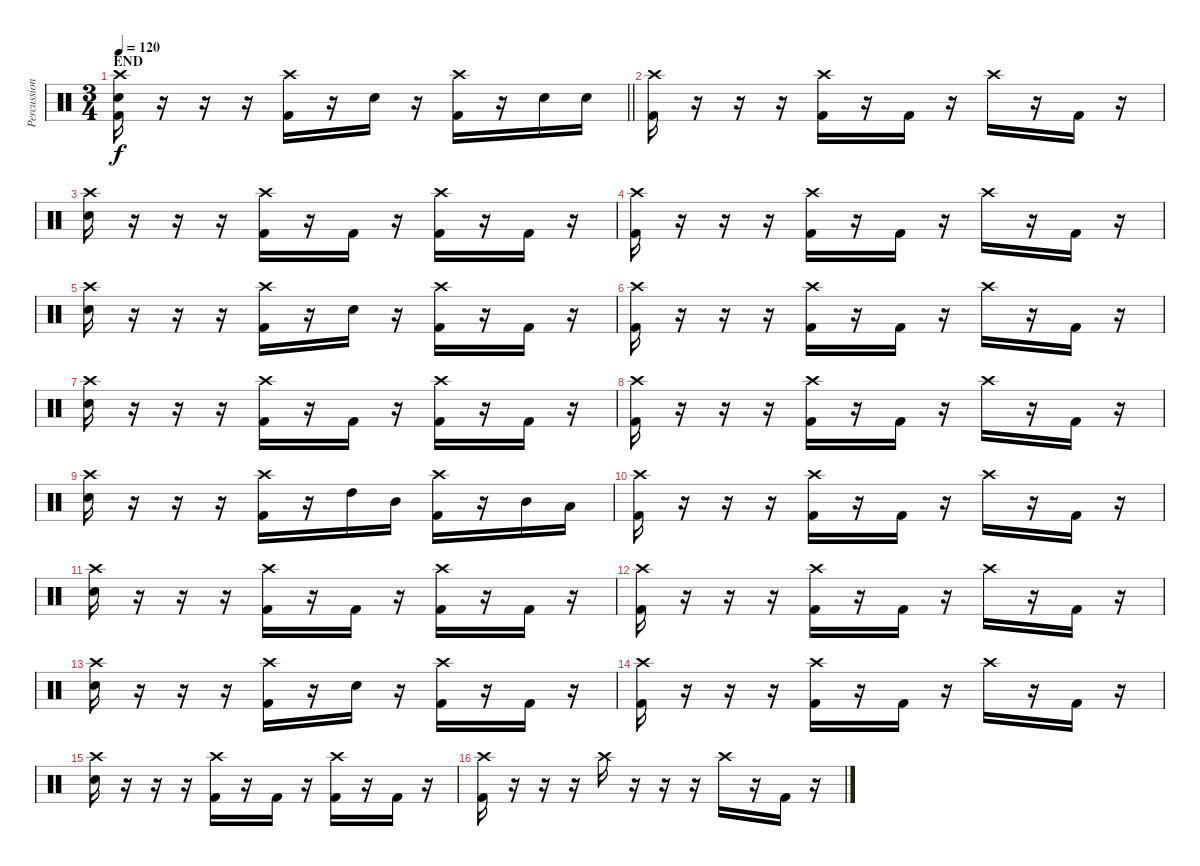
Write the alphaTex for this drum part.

\track ("Percussion" "Percussion") {instrument percussion}
\staff {score}
\articulation defaults
\ts (3 4)
\section ("" "END")
\tempo 120
\clef neutral
\barLineRight lightlight
\ks c
("Kick (hit) 2" "Electric Snare (hit)" "Crash high (hit)").16{dy f} r.16 r.16 r.16 ("Kick (hit) 2" "Crash high (hit)").16 r.16 "Electric Snare (hit)".16 r.16 ("Kick (hit) 2" "Crash high (hit)").16 r.16 "Electric Snare (hit)".16 "Electric Snare (hit)".16 |
("Kick (hit) 2" "Crash high (hit)").16 r.16 r.16 r.16 ("Kick (hit) 2" "Crash high (hit)").16 r.16 "Kick (hit) 2".16 r.16 "Crash high (hit)".16 r.16 "Kick (hit) 2".16 r.16 |
("Electric Snare (hit)" "Crash high (hit)").16 r.16 r.16 r.16 ("Kick (hit) 2" "Crash high (hit)").16 r.16 "Kick (hit) 2".16 r.16 ("Kick (hit) 2" "Crash high (hit)").16 r.16 "Kick (hit) 2".16 r.16 |
("Kick (hit) 2" "Crash high (hit)").16 r.16 r.16 r.16 ("Kick (hit) 2" "Crash high (hit)").16 r.16 "Kick (hit) 2".16 r.16 "Crash high (hit)".16 r.16 "Kick (hit) 2".16 r.16 |
("Electric Snare (hit)" "Crash high (hit)").16 r.16 r.16 r.16 ("Kick (hit) 2" "Crash high (hit)").16 r.16 "Electric Snare (hit)".16 r.16 ("Kick (hit) 2" "Crash high (hit)").16 r.16 "Kick (hit) 2".16 r.16 |
("Kick (hit) 2" "Crash high (hit)").16 r.16 r.16 r.16 ("Kick (hit) 2" "Crash high (hit)").16 r.16 "Kick (hit) 2".16 r.16 "Crash high (hit)".16 r.16 "Kick (hit) 2".16 r.16 |
("Electric Snare (hit)" "Crash high (hit)").16 r.16 r.16 r.16 ("Kick (hit) 2" "Crash high (hit)").16 r.16 "Kick (hit) 2".16 r.16 ("Kick (hit) 2" "Crash high (hit)").16 r.16 "Kick (hit) 2".16 r.16 |
("Kick (hit) 2" "Crash high (hit)").16 r.16 r.16 r.16 ("Kick (hit) 2" "Crash high (hit)").16 r.16 "Kick (hit) 2".16 r.16 "Crash high (hit)".16 r.16 "Kick (hit) 2".16 r.16 |
("Electric Snare (hit)" "Crash high (hit)").16 r.16 r.16 r.16 ("Kick (hit) 2" "Crash high (hit)").16 r.16 "High Tom (hit)".16 "Mid Tom (hit)".16 ("Kick (hit) 2" "Crash high (hit)").16 r.16 "Mid Tom (hit)".16 "Low Tom (hit)".16 |
("Kick (hit) 2" "Crash high (hit)").16 r.16 r.16 r.16 ("Kick (hit) 2" "Crash high (hit)").16 r.16 "Kick (hit) 2".16 r.16 "Crash high (hit)".16 r.16 "Kick (hit) 2".16 r.16 |
("Electric Snare (hit)" "Crash high (hit)").16 r.16 r.16 r.16 ("Kick (hit) 2" "Crash high (hit)").16 r.16 "Kick (hit) 2".16 r.16 ("Kick (hit) 2" "Crash high (hit)").16 r.16 "Kick (hit) 2".16 r.16 |
("Kick (hit) 2" "Crash high (hit)").16 r.16 r.16 r.16 ("Kick (hit) 2" "Crash high (hit)").16 r.16 "Kick (hit) 2".16 r.16 "Crash high (hit)".16 r.16 "Kick (hit) 2".16 r.16 |
("Electric Snare (hit)" "Crash high (hit)").16 r.16 r.16 r.16 ("Kick (hit) 2" "Crash high (hit)").16 r.16 "Electric Snare (hit)".16 r.16 ("Kick (hit) 2" "Crash high (hit)").16 r.16 "Kick (hit) 2".16 r.16 |
("Kick (hit) 2" "Crash high (hit)").16 r.16 r.16 r.16 ("Kick (hit) 2" "Crash high (hit)").16 r.16 "Kick (hit) 2".16 r.16 "Crash high (hit)".16 r.16 "Kick (hit) 2".16 r.16 |
("Electric Snare (hit)" "Crash high (hit)").16 r.16 r.16 r.16 ("Kick (hit) 2" "Crash high (hit)").16 r.16 "Kick (hit) 2".16 r.16 ("Kick (hit) 2" "Crash high (hit)").16 r.16 "Kick (hit) 2".16 r.16 |
("Kick (hit) 2" "Crash high (hit)").16 r.16 r.16 r.16 "Crash high (hit)".16 r.16 r.16 r.16 "Crash high (hit)".16 r.16 "Kick (hit) 2".16 r.16
